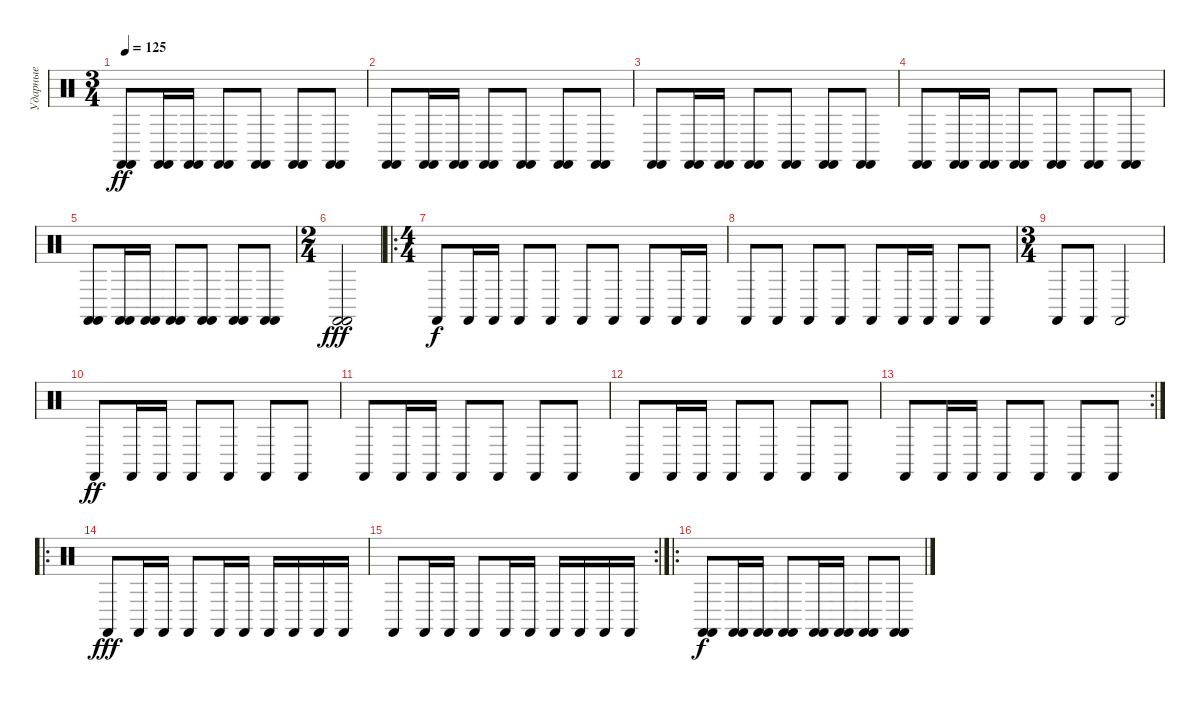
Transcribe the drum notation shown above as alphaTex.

\track ("Ударные" "Ударные") {instrument percussion}
\staff {score}
\articulation defaults
\ts (3 4)
\tempo 125
\clef neutral
\ks c
("Castanets (hit)" "Castanets (hit)").8{dy ff} ("Castanets (hit)" "Castanets (hit)").16 ("Castanets (hit)" "Castanets (hit)").16 ("Castanets (hit)" "Castanets (hit)").8 ("Castanets (hit)" "Castanets (hit)").8 ("Castanets (hit)" "Castanets (hit)").8 ("Castanets (hit)" "Castanets (hit)").8 |
("Castanets (hit)" "Castanets (hit)").8 ("Castanets (hit)" "Castanets (hit)").16 ("Castanets (hit)" "Castanets (hit)").16 ("Castanets (hit)" "Castanets (hit)").8 ("Castanets (hit)" "Castanets (hit)").8 ("Castanets (hit)" "Castanets (hit)").8 ("Castanets (hit)" "Castanets (hit)").8 |
("Castanets (hit)" "Castanets (hit)").8 ("Castanets (hit)" "Castanets (hit)").16 ("Castanets (hit)" "Castanets (hit)").16 ("Castanets (hit)" "Castanets (hit)").8 ("Castanets (hit)" "Castanets (hit)").8 ("Castanets (hit)" "Castanets (hit)").8 ("Castanets (hit)" "Castanets (hit)").8 |
("Castanets (hit)" "Castanets (hit)").8 ("Castanets (hit)" "Castanets (hit)").16 ("Castanets (hit)" "Castanets (hit)").16 ("Castanets (hit)" "Castanets (hit)").8 ("Castanets (hit)" "Castanets (hit)").8 ("Castanets (hit)" "Castanets (hit)").8 ("Castanets (hit)" "Castanets (hit)").8 |
("Castanets (hit)" "Castanets (hit)").8 ("Castanets (hit)" "Castanets (hit)").16 ("Castanets (hit)" "Castanets (hit)").16 ("Castanets (hit)" "Castanets (hit)").8 ("Castanets (hit)" "Castanets (hit)").8 ("Castanets (hit)" "Castanets (hit)").8 ("Castanets (hit)" "Castanets (hit)").8 |
\ts (2 4)
("Castanets (hit)" "Castanets (hit)").2{dy fff} |
\ro
\ts (4 4)
"Castanets (hit)".8{dy f volume 16} "Castanets (hit)".16 "Castanets (hit)".16 "Castanets (hit)".8 "Castanets (hit)".8 "Castanets (hit)".8 "Castanets (hit)".8 "Castanets (hit)".8 "Castanets (hit)".16 "Castanets (hit)".16 |
"Castanets (hit)".8 "Castanets (hit)".8 "Castanets (hit)".8 "Castanets (hit)".8 "Castanets (hit)".8 "Castanets (hit)".16 "Castanets (hit)".16 "Castanets (hit)".8 "Castanets (hit)".8 |
\ts (3 4)
"Castanets (hit)".8 "Castanets (hit)".8 "Castanets (hit)".2 |
"Castanets (hit)".8{dy ff} "Castanets (hit)".16 "Castanets (hit)".16 "Castanets (hit)".8 "Castanets (hit)".8 "Castanets (hit)".8 "Castanets (hit)".8 |
"Castanets (hit)".8 "Castanets (hit)".16 "Castanets (hit)".16 "Castanets (hit)".8 "Castanets (hit)".8 "Castanets (hit)".8 "Castanets (hit)".8 |
"Castanets (hit)".8 "Castanets (hit)".16 "Castanets (hit)".16 "Castanets (hit)".8 "Castanets (hit)".8 "Castanets (hit)".8 "Castanets (hit)".8 |
\rc 2 "Castanets (hit)".8 "Castanets (hit)".16 "Castanets (hit)".16 "Castanets (hit)".8 "Castanets (hit)".8 "Castanets (hit)".8 "Castanets (hit)".8
|
\ro "Castanets (hit)".8{dy fff} "Castanets (hit)".16 "Castanets (hit)".16 "Castanets (hit)".8 "Castanets (hit)".16 "Castanets (hit)".16 "Castanets (hit)".16 "Castanets (hit)".16 "Castanets (hit)".16 "Castanets (hit)".16
|
\rc 2 "Castanets (hit)".8 "Castanets (hit)".16 "Castanets (hit)".16 "Castanets (hit)".8 "Castanets (hit)".16 "Castanets (hit)".16 "Castanets (hit)".16 "Castanets (hit)".16 "Castanets (hit)".16 "Castanets (hit)".16
|
\ro
("Castanets (hit)" "Castanets (hit)").8{dy f} ("Castanets (hit)" "Castanets (hit)").16 ("Castanets (hit)" "Castanets (hit)").16 ("Castanets (hit)" "Castanets (hit)").8 ("Castanets (hit)" "Castanets (hit)").16 ("Castanets (hit)" "Castanets (hit)").16 ("Castanets (hit)" "Castanets (hit)").8 ("Castanets (hit)" "Castanets (hit)").8
